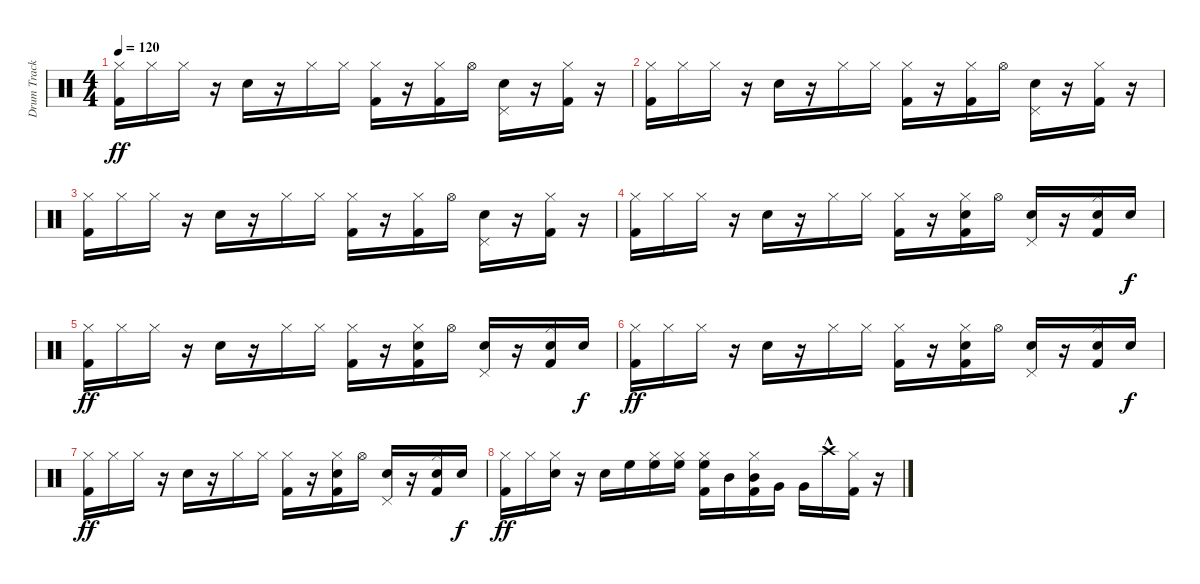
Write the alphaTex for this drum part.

\track ("Drum Track" "Drum Track") {instrument percussion}
\staff {score}
\articulation defaults
\ts (4 4)
\tempo 120
\clef neutral
\ks c
("Kick (hit) 2" "Hi-Hat (closed)").16{dy ff} "Hi-Hat (closed)".16 "Hi-Hat (closed)".16 r.16 "Snare (hit) 2".16 r.16 "Hi-Hat (closed)".16 "Hi-Hat (closed)".16 ("Kick (hit) 2" "Hi-Hat (closed)").16 r.16 ("Kick (hit) 2" "Hi-Hat (closed)").16 "Hi-Hat (open)".16 ("Snare (hit) 2" "Pedal Hi-Hat (hit)").16 r.16 ("Kick (hit) 2" "Hi-Hat (closed)").16 r.16 |
("Kick (hit) 2" "Hi-Hat (closed)").16 "Hi-Hat (closed)".16 "Hi-Hat (closed)".16 r.16 "Snare (hit) 2".16 r.16 "Hi-Hat (closed)".16 "Hi-Hat (closed)".16 ("Kick (hit) 2" "Hi-Hat (closed)").16 r.16 ("Kick (hit) 2" "Hi-Hat (closed)").16 "Hi-Hat (open)".16 ("Snare (hit) 2" "Pedal Hi-Hat (hit)").16 r.16 ("Kick (hit) 2" "Hi-Hat (closed)").16 r.16 |
("Kick (hit) 2" "Hi-Hat (closed)").16 "Hi-Hat (closed)".16 "Hi-Hat (closed)".16 r.16 "Snare (hit) 2".16 r.16 "Hi-Hat (closed)".16 "Hi-Hat (closed)".16 ("Kick (hit) 2" "Hi-Hat (closed)").16 r.16 ("Kick (hit) 2" "Hi-Hat (closed)").16 "Hi-Hat (open)".16 ("Snare (hit) 2" "Pedal Hi-Hat (hit)").16 r.16 ("Kick (hit) 2" "Hi-Hat (closed)").16 r.16 |
("Kick (hit) 2" "Hi-Hat (closed)").16 "Hi-Hat (closed)".16 "Hi-Hat (closed)".16 r.16 "Snare (hit) 2".16 r.16 "Hi-Hat (closed)".16 "Hi-Hat (closed)".16 ("Kick (hit) 2" "Hi-Hat (closed)").16 r.16 ("Kick (hit) 2" "Hi-Hat (closed)" "Snare (hit) 2").16 "Hi-Hat (open)".16 ("Snare (hit) 2" "Pedal Hi-Hat (hit)").16 r.16 ("Kick (hit) 2" "Hi-Hat (closed)" "Snare (hit) 2").16 "Snare (hit) 2".16{dy f} |
("Kick (hit) 2" "Hi-Hat (closed)").16{dy ff} "Hi-Hat (closed)".16 "Hi-Hat (closed)".16 r.16 "Snare (hit) 2".16 r.16 "Hi-Hat (closed)".16 "Hi-Hat (closed)".16 ("Kick (hit) 2" "Hi-Hat (closed)").16 r.16 ("Kick (hit) 2" "Hi-Hat (closed)" "Snare (hit) 2").16 "Hi-Hat (open)".16 ("Snare (hit) 2" "Pedal Hi-Hat (hit)").16 r.16 ("Kick (hit) 2" "Hi-Hat (closed)" "Snare (hit) 2").16 "Snare (hit) 2".16{dy f} |
("Kick (hit) 2" "Hi-Hat (closed)").16{dy ff} "Hi-Hat (closed)".16 "Hi-Hat (closed)".16 r.16 "Snare (hit) 2".16 r.16 "Hi-Hat (closed)".16 "Hi-Hat (closed)".16 ("Kick (hit) 2" "Hi-Hat (closed)").16 r.16 ("Kick (hit) 2" "Hi-Hat (closed)" "Snare (hit) 2").16 "Hi-Hat (open)".16 ("Snare (hit) 2" "Pedal Hi-Hat (hit)").16 r.16 ("Kick (hit) 2" "Hi-Hat (closed)" "Snare (hit) 2").16 "Snare (hit) 2".16{dy f} |
("Kick (hit) 2" "Hi-Hat (closed)").16{dy ff} "Hi-Hat (closed)".16 "Hi-Hat (closed)".16 r.16 "Snare (hit) 2".16 r.16 "Hi-Hat (closed)".16 "Hi-Hat (closed)".16 ("Kick (hit) 2" "Hi-Hat (closed)").16 r.16 ("Kick (hit) 2" "Hi-Hat (closed)" "Snare (hit) 2").16 "Hi-Hat (open)".16 ("Snare (hit) 2" "Pedal Hi-Hat (hit)").16 r.16 ("Kick (hit) 2" "Hi-Hat (closed)" "Snare (hit) 2").16 "Snare (hit) 2".16{dy f} |
("Kick (hit) 2" "Hi-Hat (closed)").16{dy ff} "Hi-Hat (closed)".16 ("Hi-Hat (closed)" "Snare (hit) 2").16 r.16 "Snare (hit) 2".16 "High Floor Tom (hit)".16 ("Hi-Hat (closed)" "High Floor Tom (hit)").16 ("Hi-Hat (closed)" "High Floor Tom (hit)").16 ("Kick (hit) 2" "Hi-Hat (closed)" "High Floor Tom (hit)").16 "Mid Tom (hit)".16 ("Kick (hit) 2" "Hi-Hat (closed)" "Mid Tom (hit)").16 "Very Low Tom (hit)".16 "Very Low Tom (hit)".16 "Crash high (hit)"{hac}.16 ("Kick (hit) 2" "Hi-Hat (closed)").16 r.16
